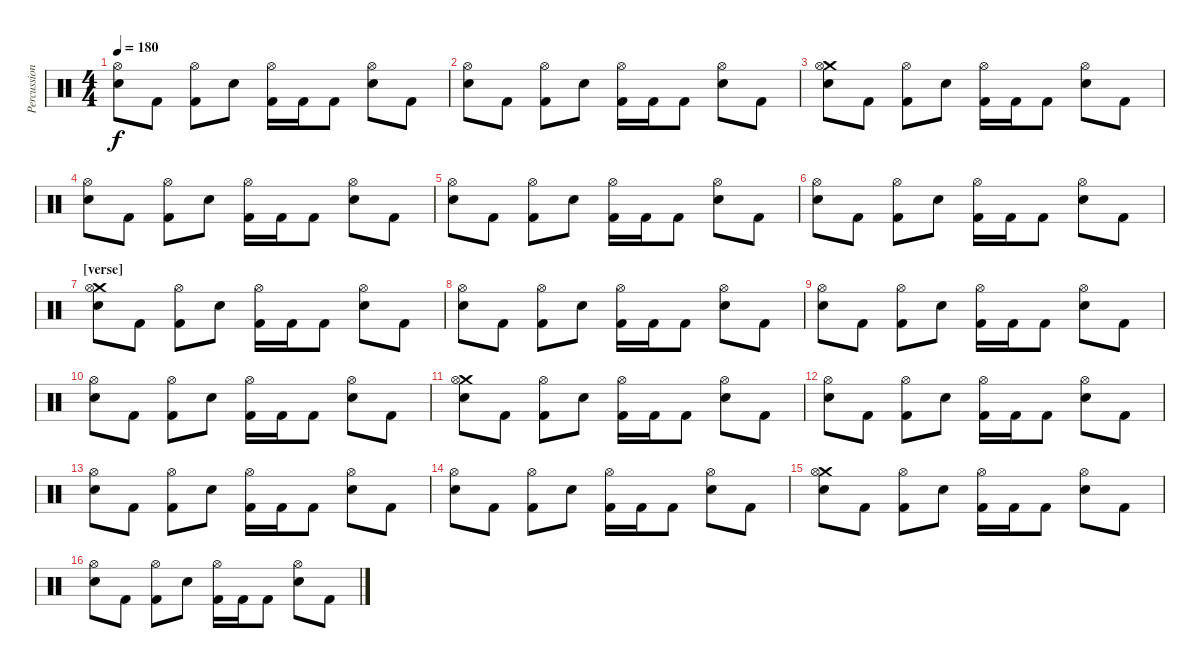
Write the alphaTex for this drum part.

\track ("Percussion" "Percussion") {instrument percussion}
\staff {score}
\articulation defaults
\ts (4 4)
\tempo 180
\clef neutral
\ks c
("Hi-Hat (open)" "Electric Snare (hit)").8{dy f} "Kick (hit) 2".8 ("Hi-Hat (open)" "Kick (hit) 2").8 "Electric Snare (hit)".8 ("Hi-Hat (open)" "Kick (hit) 2").16 "Kick (hit) 2".16 "Kick (hit) 2".8 ("Hi-Hat (open)" "Electric Snare (hit)").8 "Kick (hit) 2".8 |
("Hi-Hat (open)" "Electric Snare (hit)").8 "Kick (hit) 2".8 ("Hi-Hat (open)" "Kick (hit) 2").8 "Electric Snare (hit)".8 ("Hi-Hat (open)" "Kick (hit) 2").16 "Kick (hit) 2".16 "Kick (hit) 2".8 ("Hi-Hat (open)" "Electric Snare (hit)").8 "Kick (hit) 2".8 |
("Crash medium (hit)" "Hi-Hat (open)" "Electric Snare (hit)").8 "Kick (hit) 2".8 ("Hi-Hat (open)" "Kick (hit) 2").8 "Electric Snare (hit)".8 ("Hi-Hat (open)" "Kick (hit) 2").16 "Kick (hit) 2".16 "Kick (hit) 2".8 ("Hi-Hat (open)" "Electric Snare (hit)").8 "Kick (hit) 2".8 |
("Hi-Hat (open)" "Electric Snare (hit)").8 "Kick (hit) 2".8 ("Hi-Hat (open)" "Kick (hit) 2").8 "Electric Snare (hit)".8 ("Hi-Hat (open)" "Kick (hit) 2").16 "Kick (hit) 2".16 "Kick (hit) 2".8 ("Hi-Hat (open)" "Electric Snare (hit)").8 "Kick (hit) 2".8 |
("Hi-Hat (open)" "Electric Snare (hit)").8 "Kick (hit) 2".8 ("Hi-Hat (open)" "Kick (hit) 2").8 "Electric Snare (hit)".8 ("Hi-Hat (open)" "Kick (hit) 2").16 "Kick (hit) 2".16 "Kick (hit) 2".8 ("Hi-Hat (open)" "Electric Snare (hit)").8 "Kick (hit) 2".8 |
("Hi-Hat (open)" "Electric Snare (hit)").8 "Kick (hit) 2".8 ("Hi-Hat (open)" "Kick (hit) 2").8 "Electric Snare (hit)".8 ("Hi-Hat (open)" "Kick (hit) 2").16 "Kick (hit) 2".16 "Kick (hit) 2".8 ("Hi-Hat (open)" "Electric Snare (hit)").8 "Kick (hit) 2".8 |
\section ("" "[verse]")
("Crash medium (hit)" "Hi-Hat (open)" "Electric Snare (hit)").8 "Kick (hit) 2".8 ("Hi-Hat (open)" "Kick (hit) 2").8 "Electric Snare (hit)".8 ("Hi-Hat (open)" "Kick (hit) 2").16 "Kick (hit) 2".16 "Kick (hit) 2".8 ("Hi-Hat (open)" "Electric Snare (hit)").8 "Kick (hit) 2".8 |
("Hi-Hat (open)" "Electric Snare (hit)").8 "Kick (hit) 2".8 ("Hi-Hat (open)" "Kick (hit) 2").8 "Electric Snare (hit)".8 ("Hi-Hat (open)" "Kick (hit) 2").16 "Kick (hit) 2".16 "Kick (hit) 2".8 ("Hi-Hat (open)" "Electric Snare (hit)").8 "Kick (hit) 2".8 |
("Hi-Hat (open)" "Electric Snare (hit)").8 "Kick (hit) 2".8 ("Hi-Hat (open)" "Kick (hit) 2").8 "Electric Snare (hit)".8 ("Hi-Hat (open)" "Kick (hit) 2").16 "Kick (hit) 2".16 "Kick (hit) 2".8 ("Hi-Hat (open)" "Electric Snare (hit)").8 "Kick (hit) 2".8 |
("Hi-Hat (open)" "Electric Snare (hit)").8 "Kick (hit) 2".8 ("Hi-Hat (open)" "Kick (hit) 2").8 "Electric Snare (hit)".8 ("Hi-Hat (open)" "Kick (hit) 2").16 "Kick (hit) 2".16 "Kick (hit) 2".8 ("Hi-Hat (open)" "Electric Snare (hit)").8 "Kick (hit) 2".8 |
("Crash medium (hit)" "Hi-Hat (open)" "Electric Snare (hit)").8 "Kick (hit) 2".8 ("Hi-Hat (open)" "Kick (hit) 2").8 "Electric Snare (hit)".8 ("Hi-Hat (open)" "Kick (hit) 2").16 "Kick (hit) 2".16 "Kick (hit) 2".8 ("Hi-Hat (open)" "Electric Snare (hit)").8 "Kick (hit) 2".8 |
("Hi-Hat (open)" "Electric Snare (hit)").8 "Kick (hit) 2".8 ("Hi-Hat (open)" "Kick (hit) 2").8 "Electric Snare (hit)".8 ("Hi-Hat (open)" "Kick (hit) 2").16 "Kick (hit) 2".16 "Kick (hit) 2".8 ("Hi-Hat (open)" "Electric Snare (hit)").8 "Kick (hit) 2".8 |
("Hi-Hat (open)" "Electric Snare (hit)").8 "Kick (hit) 2".8 ("Hi-Hat (open)" "Kick (hit) 2").8 "Electric Snare (hit)".8 ("Hi-Hat (open)" "Kick (hit) 2").16 "Kick (hit) 2".16 "Kick (hit) 2".8 ("Hi-Hat (open)" "Electric Snare (hit)").8 "Kick (hit) 2".8 |
("Hi-Hat (open)" "Electric Snare (hit)").8 "Kick (hit) 2".8 ("Hi-Hat (open)" "Kick (hit) 2").8 "Electric Snare (hit)".8 ("Hi-Hat (open)" "Kick (hit) 2").16 "Kick (hit) 2".16 "Kick (hit) 2".8 ("Hi-Hat (open)" "Electric Snare (hit)").8 "Kick (hit) 2".8 |
("Crash medium (hit)" "Hi-Hat (open)" "Electric Snare (hit)").8 "Kick (hit) 2".8 ("Hi-Hat (open)" "Kick (hit) 2").8 "Electric Snare (hit)".8 ("Hi-Hat (open)" "Kick (hit) 2").16 "Kick (hit) 2".16 "Kick (hit) 2".8 ("Hi-Hat (open)" "Electric Snare (hit)").8 "Kick (hit) 2".8 |
("Hi-Hat (open)" "Electric Snare (hit)").8 "Kick (hit) 2".8 ("Hi-Hat (open)" "Kick (hit) 2").8 "Electric Snare (hit)".8 ("Hi-Hat (open)" "Kick (hit) 2").16 "Kick (hit) 2".16 "Kick (hit) 2".8 ("Hi-Hat (open)" "Electric Snare (hit)").8 "Kick (hit) 2".8
